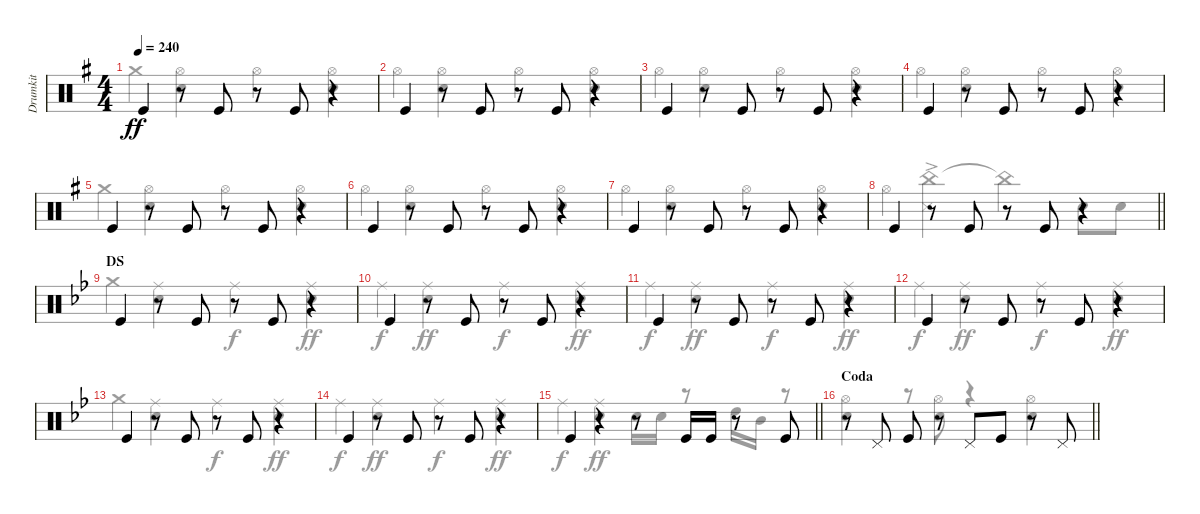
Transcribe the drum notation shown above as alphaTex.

\track ("Drumkit" "Drumkit") {instrument percussion}
\staff {score}
\articulation defaults
\voice
\ts (4 4)
\tempo 240
\clef neutral
\ks g "Kick (hit)".4{dy ff}
r.8 "Kick (hit)".8 r.8 "Kick (hit)".8 r.4 |
"Kick (hit)".4 r.8 "Kick (hit)".8 r.8 "Kick (hit)".8 r.4 |
"Kick (hit)".4 r.8 "Kick (hit)".8 r.8 "Kick (hit)".8 r.4 |
"Kick (hit)".4 r.8 "Kick (hit)".8 r.8 "Kick (hit)".8 r.4 |
"Kick (hit)".4 r.8 "Kick (hit)".8 r.8 "Kick (hit)".8 r.4 |
"Kick (hit)".4 r.8 "Kick (hit)".8 r.8 "Kick (hit)".8 r.4 |
"Kick (hit)".4 r.8 "Kick (hit)".8 r.8 "Kick (hit)".8 r.4 |
\barLineRight lightlight "Kick (hit)".4
r.8 "Kick (hit)".8 r.8 "Kick (hit)".8 r.4 |
\section ("" "DS")
\ks bb "Kick (hit)".4
r.8 "Kick (hit)".8 r.8 "Kick (hit)".8 r.4 |
"Kick (hit)".4 r.8 "Kick (hit)".8 r.8 "Kick (hit)".8 r.4 |
"Kick (hit)".4 r.8 "Kick (hit)".8 r.8 "Kick (hit)".8 r.4 |
"Kick (hit)".4 r.8 "Kick (hit)".8 r.8 "Kick (hit)".8 r.4 |
"Kick (hit)".4 r.8 "Kick (hit)".8 r.8 "Kick (hit)".8 r.4 |
"Kick (hit)".4 r.8 "Kick (hit)".8 r.8 "Kick (hit)".8 r.4 |
\barLineRight lightlight "Kick (hit)".4
r.4 r.8 "Kick (hit)".16 "Kick (hit)".16 r.8 "Kick (hit)".8 |
\section ("" "Coda")
\barLineRight lightlight
r.8 "Pedal Hi-Hat (hit)".8 "Kick (hit)".8 r.8 "Pedal Hi-Hat (hit)".8 "Kick (hit)".8 r.8 "Pedal Hi-Hat (hit)".8
\voice
\clef neutral
\ottava regular
\simile none
\ks g "Crash medium (hit)".4{dy ff}
("Hi-Hat (open)" "Snare (hit) 2").4 "Hi-Hat (open)".4 ("Hi-Hat (open)" "Snare (hit) 2").4 |
"Hi-Hat (open)".4 ("Hi-Hat (open)" "Snare (hit) 2").4 "Hi-Hat (open)".4 ("Hi-Hat (open)" "Snare (hit) 2").4 |
"Hi-Hat (open)".4 ("Hi-Hat (open)" "Snare (hit) 2").4 "Hi-Hat (open)".4 ("Hi-Hat (open)" "Snare (hit) 2").4 |
"Hi-Hat (open)".4 ("Hi-Hat (open)" "Snare (hit) 2").4 "Hi-Hat (open)".4 ("Hi-Hat (open)" "Snare (hit) 2").4 |
"Crash medium (hit)".4 ("Hi-Hat (open)" "Snare (hit) 2").4 "Hi-Hat (open)".4 ("Hi-Hat (open)" "Snare (hit) 2").4 |
"Hi-Hat (open)".4 ("Hi-Hat (open)" "Snare (hit) 2").4 "Hi-Hat (open)".4 ("Hi-Hat (open)" "Snare (hit) 2").4 |
"Hi-Hat (open)".4 ("Hi-Hat (open)" "Snare (hit) 2").4 "Hi-Hat (open)".4 ("Hi-Hat (open)" "Snare (hit) 2").4 |
\barLineRight lightlight "Hi-Hat (open)".4
("China (hit)"{ac} "Snare (side stick) 3").4 "China (hit)"{t}.4 "Snare (hit) 2".8 "Snare (hit) 2".8 |
\ks bb "Crash medium (hit)".4
("Ride (middle)" "Snare (hit) 2").4 "Ride (middle)".4{dy f} ("Ride (middle)" "Snare (hit) 2").4{dy ff} |
"Ride (middle)".4{dy f} ("Ride (middle)" "Snare (hit) 2").4{dy ff} "Ride (middle)".4{dy f} ("Ride (middle)" "Snare (hit) 2").4{dy ff} |
"Ride (middle)".4{dy f} ("Ride (middle)" "Snare (hit) 2").4{dy ff} "Ride (middle)".4{dy f} ("Ride (middle)" "Snare (hit) 2").4{dy ff} |
"Ride (middle)".4{dy f} ("Ride (middle)" "Snare (hit) 2").4{dy ff} "Ride (middle)".4{dy f} ("Ride (middle)" "Snare (hit) 2").4{dy ff} |
"Crash medium (hit)".4 ("Ride (middle)" "Snare (hit) 2").4 "Ride (middle)".4{dy f} ("Ride (middle)" "Snare (hit) 2").4{dy ff} |
"Ride (middle)".4{dy f} ("Ride (middle)" "Snare (hit) 2").4{dy ff} "Ride (middle)".4{dy f} ("Ride (middle)" "Snare (hit) 2").4{dy ff} |
\barLineRight lightlight "Ride (middle)".4{dy f}
("Ride (middle)" "Snare (hit) 2").4{dy ff} "Snare (hit) 2".16 "Snare (hit) 2".16 r.8 "High Tom (hit)".16 "Mid Tom (hit)".16 r.8 |
\barLineRight lightlight
("Hi-Hat (open)" "Snare (hit) 2").4 r.8 ("Snare (hit) 2" "Hi-Hat (open)").8 r.4 ("Hi-Hat (open)" "Snare (hit) 2").4
